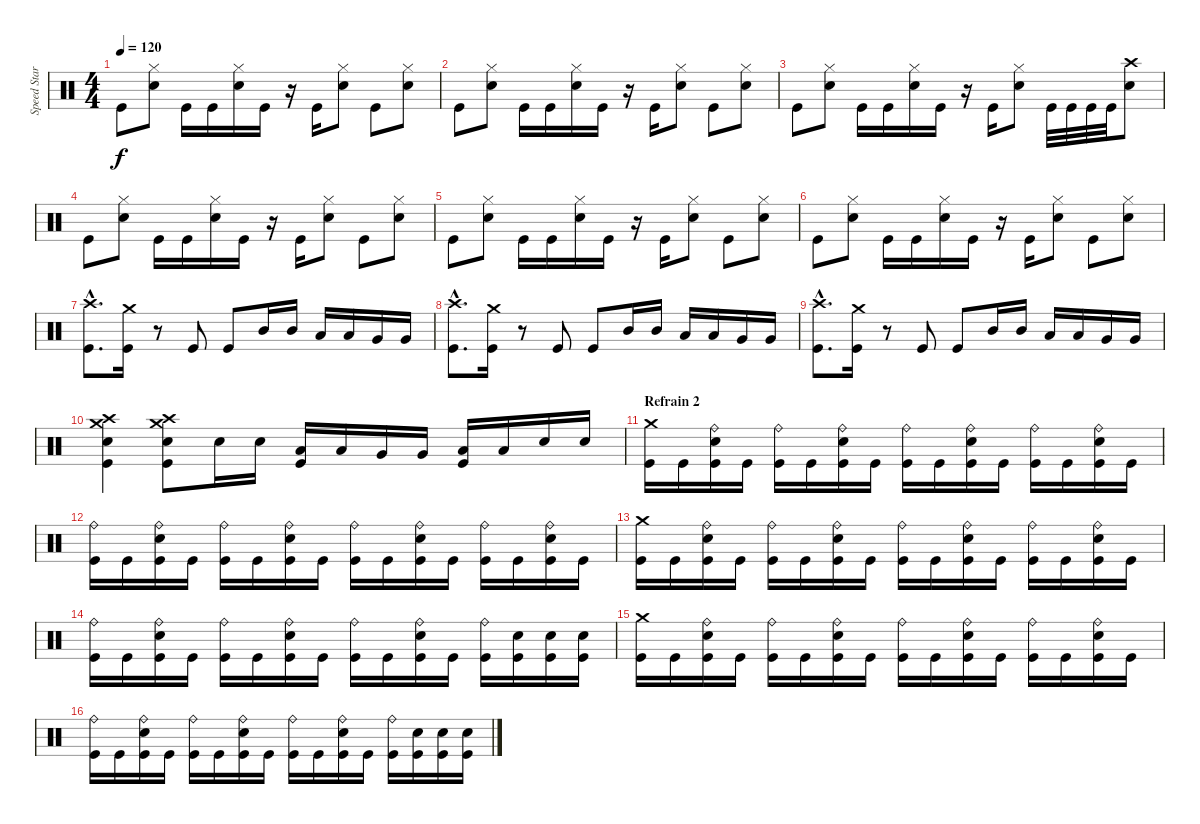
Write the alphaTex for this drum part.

\track ("Speed Star" "Speed Star") {instrument percussion}
\staff {score}
\articulation defaults
\ts (4 4)
\tempo 120
\clef neutral
\ks c "Kick (hit)".8{dy f}
("Snare (hit) 2" "Hi-Hat (closed)").8 "Kick (hit)".16 "Kick (hit)".16 ("Snare (hit) 2" "Hi-Hat (closed)").16 "Kick (hit)".16 r.16 "Kick (hit)".16 ("Snare (hit) 2" "Hi-Hat (closed)").8 "Kick (hit)".8 ("Snare (hit) 2" "Hi-Hat (closed)").8 |
"Kick (hit)".8 ("Snare (hit) 2" "Hi-Hat (closed)").8 "Kick (hit)".16 "Kick (hit)".16 ("Snare (hit) 2" "Hi-Hat (closed)").16 "Kick (hit)".16 r.16 "Kick (hit)".16 ("Snare (hit) 2" "Hi-Hat (closed)").8 "Kick (hit)".8 ("Snare (hit) 2" "Hi-Hat (closed)").8 |
"Kick (hit)".8 ("Snare (hit) 2" "Hi-Hat (closed)").8 "Kick (hit)".16 "Kick (hit)".16 ("Snare (hit) 2" "Hi-Hat (closed)").16 "Kick (hit)".16 r.16 "Kick (hit)".16 ("Snare (hit) 2" "Hi-Hat (closed)").8 "Kick (hit)".32 "Kick (hit)".32 "Kick (hit)".32 "Kick (hit)".32 ("Snare (hit) 2" "Crash high (hit)").8 |
"Kick (hit)".8 ("Snare (hit) 2" "Hi-Hat (closed)").8 "Kick (hit)".16 "Kick (hit)".16 ("Snare (hit) 2" "Hi-Hat (closed)").16 "Kick (hit)".16 r.16 "Kick (hit)".16 ("Snare (hit) 2" "Hi-Hat (closed)").8 "Kick (hit)".8 ("Snare (hit) 2" "Hi-Hat (closed)").8 |
"Kick (hit)".8 ("Snare (hit) 2" "Hi-Hat (closed)").8 "Kick (hit)".16 "Kick (hit)".16 ("Snare (hit) 2" "Hi-Hat (closed)").16 "Kick (hit)".16 r.16 "Kick (hit)".16 ("Snare (hit) 2" "Hi-Hat (closed)").8 "Kick (hit)".8 ("Snare (hit) 2" "Hi-Hat (closed)").8 |
"Kick (hit)".8 ("Snare (hit) 2" "Hi-Hat (closed)").8 "Kick (hit)".16 "Kick (hit)".16 ("Snare (hit) 2" "Hi-Hat (closed)").16 "Kick (hit)".16 r.16 "Kick (hit)".16 ("Snare (hit) 2" "Hi-Hat (closed)").8 "Kick (hit)".8 ("Snare (hit) 2" "Hi-Hat (closed)").8 |
("Kick (hit)"{hac} "Crash high (hit)"{hac}).8{d} ("Kick (hit)" "Crash medium (hit)").16 r.8 "Kick (hit)".8 "Kick (hit)".8 "Mid Tom (hit)".16 "Mid Tom (hit)".16 "Low Tom (hit)".16 "Low Tom (hit)".16 "Very Low Tom (hit)".16 "Very Low Tom (hit)".16 |
("Kick (hit)"{hac} "Crash high (hit)"{hac}).8{d} ("Kick (hit)" "Crash medium (hit)").16 r.8 "Kick (hit)".8 "Kick (hit)".8 "Mid Tom (hit)".16 "Mid Tom (hit)".16 "Low Tom (hit)".16 "Low Tom (hit)".16 "Very Low Tom (hit)".16 "Very Low Tom (hit)".16 |
("Kick (hit)"{hac} "Crash high (hit)"{hac}).8{d} ("Kick (hit)" "Crash medium (hit)").16 r.8 "Kick (hit)".8 "Kick (hit)".8 "Mid Tom (hit)".16 "Mid Tom (hit)".16 "Low Tom (hit)".16 "Low Tom (hit)".16 "Very Low Tom (hit)".16 "Very Low Tom (hit)".16 |
("Kick (hit)" "Snare (hit) 2" "Crash high (hit)" "Crash medium (hit)").4 ("Kick (hit)" "Snare (hit) 2" "Crash high (hit)" "Crash medium (hit)").8 "Snare (hit) 2".16 "Snare (hit) 2".16 ("Kick (hit)" "Low Floor Tom (hit)").16 "Low Floor Tom (hit)".16 "Very Low Tom (hit)".16 "Very Low Tom (hit)".16 ("Kick (hit)" "Low Tom (hit)").16 "Low Tom (hit)".16 "Snare (hit) 2".16 "Snare (hit) 2".16 |
\section ("" "Refrain 2")
("Kick (hit)" "Crash medium (hit)").16 "Kick (hit)".16 ("Kick (hit)" "Snare (hit) 2" "Ride (bell)").16 "Kick (hit)".16 ("Kick (hit)" "Ride (bell)").16 "Kick (hit)".16 ("Kick (hit)" "Snare (hit) 2" "Ride (bell)").16 "Kick (hit)".16 ("Kick (hit)" "Ride (bell)").16 "Kick (hit)".16 ("Kick (hit)" "Snare (hit) 2" "Ride (bell)").16 "Kick (hit)".16 ("Kick (hit)" "Ride (bell)").16 "Kick (hit)".16 ("Kick (hit)" "Snare (hit) 2" "Ride (bell)").16 "Kick (hit)".16 |
("Kick (hit)" "Ride (bell)").16 "Kick (hit)".16 ("Kick (hit)" "Snare (hit) 2" "Ride (bell)").16 "Kick (hit)".16 ("Kick (hit)" "Ride (bell)").16 "Kick (hit)".16 ("Kick (hit)" "Snare (hit) 2" "Ride (bell)").16 "Kick (hit)".16 ("Kick (hit)" "Ride (bell)").16 "Kick (hit)".16 ("Kick (hit)" "Snare (hit) 2" "Ride (bell)").16 "Kick (hit)".16 ("Kick (hit)" "Ride (bell)").16 "Kick (hit)".16 ("Kick (hit)" "Snare (hit) 2" "Ride (bell)").16 "Kick (hit)".16 |
("Kick (hit)" "Crash medium (hit)").16 "Kick (hit)".16 ("Kick (hit)" "Snare (hit) 2" "Ride (bell)").16 "Kick (hit)".16 ("Kick (hit)" "Ride (bell)").16 "Kick (hit)".16 ("Kick (hit)" "Snare (hit) 2" "Ride (bell)").16 "Kick (hit)".16 ("Kick (hit)" "Ride (bell)").16 "Kick (hit)".16 ("Kick (hit)" "Snare (hit) 2" "Ride (bell)").16 "Kick (hit)".16 ("Kick (hit)" "Ride (bell)").16 "Kick (hit)".16 ("Kick (hit)" "Snare (hit) 2" "Ride (bell)").16 "Kick (hit)".16 |
("Kick (hit)" "Ride (bell)").16 "Kick (hit)".16 ("Kick (hit)" "Snare (hit) 2" "Ride (bell)").16 "Kick (hit)".16 ("Kick (hit)" "Ride (bell)").16 "Kick (hit)".16 ("Kick (hit)" "Snare (hit) 2" "Ride (bell)").16 "Kick (hit)".16 ("Kick (hit)" "Ride (bell)").16 "Kick (hit)".16 ("Kick (hit)" "Snare (hit) 2" "Ride (bell)").16 "Kick (hit)".16 ("Kick (hit)" "Ride (bell)").16 ("Kick (hit)" "Snare (hit) 2").16 ("Kick (hit)" "Snare (hit) 2").16 ("Kick (hit)" "Snare (hit) 2").16 |
("Kick (hit)" "Crash medium (hit)").16 "Kick (hit)".16 ("Kick (hit)" "Snare (hit) 2" "Ride (bell)").16 "Kick (hit)".16 ("Kick (hit)" "Ride (bell)").16 "Kick (hit)".16 ("Kick (hit)" "Snare (hit) 2" "Ride (bell)").16 "Kick (hit)".16 ("Kick (hit)" "Ride (bell)").16 "Kick (hit)".16 ("Kick (hit)" "Snare (hit) 2" "Ride (bell)").16 "Kick (hit)".16 ("Kick (hit)" "Ride (bell)").16 "Kick (hit)".16 ("Kick (hit)" "Snare (hit) 2" "Ride (bell)").16 "Kick (hit)".16 |
("Kick (hit)" "Ride (bell)").16 "Kick (hit)".16 ("Kick (hit)" "Snare (hit) 2" "Ride (bell)").16 "Kick (hit)".16 ("Kick (hit)" "Ride (bell)").16 "Kick (hit)".16 ("Kick (hit)" "Snare (hit) 2" "Ride (bell)").16 "Kick (hit)".16 ("Kick (hit)" "Ride (bell)").16 "Kick (hit)".16 ("Kick (hit)" "Snare (hit) 2" "Ride (bell)").16 "Kick (hit)".16 ("Kick (hit)" "Ride (bell)").16 ("Kick (hit)" "Snare (hit) 2").16 ("Kick (hit)" "Snare (hit) 2").16 ("Kick (hit)" "Snare (hit) 2").16
